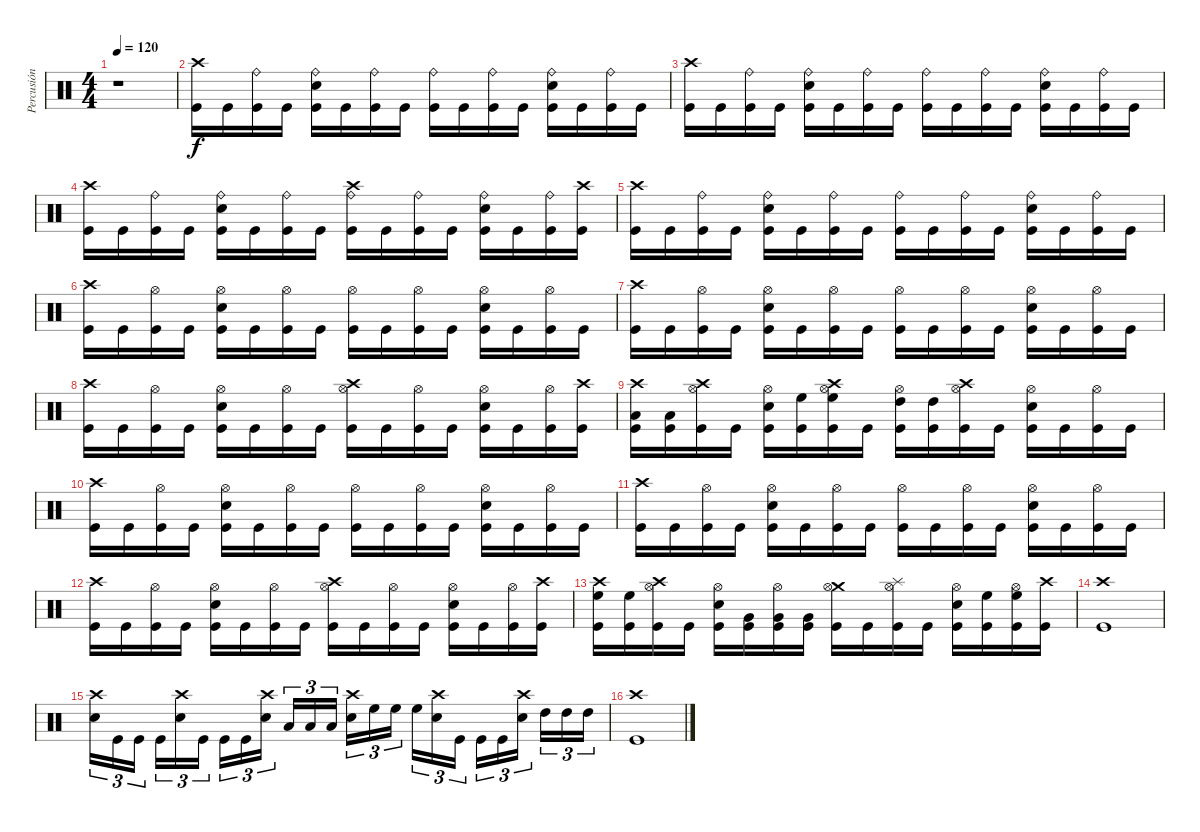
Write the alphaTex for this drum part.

\track ("Percusión" "Percusión") {instrument percussion}
\staff {score}
\articulation defaults
\ts (4 4)
\tempo 120
\clef neutral
\ks c
r.1{dy f} |
("Crash high (hit)" "Kick (hit)").16 "Kick (hit)".16 ("Ride (bell)" "Kick (hit)").16 "Kick (hit)".16 ("Snare (hit) 2" "Ride (bell)" "Kick (hit)").16 "Kick (hit)".16 ("Ride (bell)" "Kick (hit)").16 "Kick (hit)".16 ("Ride (bell)" "Kick (hit)").16 "Kick (hit)".16 ("Ride (bell)" "Kick (hit)").16 "Kick (hit)".16 ("Snare (hit) 2" "Ride (bell)" "Kick (hit)").16 "Kick (hit)".16 ("Ride (bell)" "Kick (hit)").16 "Kick (hit)".16 |
("Crash high (hit)" "Kick (hit)").16 "Kick (hit)".16 ("Ride (bell)" "Kick (hit)").16 "Kick (hit)".16 ("Snare (hit) 2" "Ride (bell)" "Kick (hit)").16 "Kick (hit)".16 ("Ride (bell)" "Kick (hit)").16 "Kick (hit)".16 ("Ride (bell)" "Kick (hit)").16 "Kick (hit)".16 ("Ride (bell)" "Kick (hit)").16 "Kick (hit)".16 ("Snare (hit) 2" "Ride (bell)" "Kick (hit)").16 "Kick (hit)".16 ("Ride (bell)" "Kick (hit)").16 "Kick (hit)".16 |
("Crash high (hit)" "Kick (hit)").16 "Kick (hit)".16 ("Ride (bell)" "Kick (hit)").16 "Kick (hit)".16 ("Snare (hit) 2" "Ride (bell)" "Kick (hit)").16 "Kick (hit)".16 ("Ride (bell)" "Kick (hit)").16 "Kick (hit)".16 ("Crash high (hit)" "Ride (bell)" "Kick (hit)").16 "Kick (hit)".16 ("Ride (bell)" "Kick (hit)").16 "Kick (hit)".16 ("Snare (hit) 2" "Ride (bell)" "Kick (hit)").16 "Kick (hit)".16 ("Ride (bell)" "Kick (hit)").16 ("Crash high (hit)" "Kick (hit)").16 |
("Crash high (hit)" "Kick (hit)").16 "Kick (hit)".16 ("Ride (bell)" "Kick (hit)").16 "Kick (hit)".16 ("Snare (hit) 2" "Ride (bell)" "Kick (hit)").16 "Kick (hit)".16 ("Ride (bell)" "Kick (hit)").16 "Kick (hit)".16 ("Ride (bell)" "Kick (hit)").16 "Kick (hit)".16 ("Ride (bell)" "Kick (hit)").16 "Kick (hit)".16 ("Snare (hit) 2" "Ride (bell)" "Kick (hit)").16 "Kick (hit)".16 ("Ride (bell)" "Kick (hit)").16 "Kick (hit)".16 |
("Crash high (hit)" "Kick (hit)").16 "Kick (hit)".16 ("Hi-Hat (open)" "Kick (hit)").16 "Kick (hit)".16 ("Snare (hit) 2" "Hi-Hat (open)" "Kick (hit)").16 "Kick (hit)".16 ("Hi-Hat (open)" "Kick (hit)").16 "Kick (hit)".16 ("Hi-Hat (open)" "Kick (hit)").16 "Kick (hit)".16 ("Hi-Hat (open)" "Kick (hit)").16 "Kick (hit)".16 ("Snare (hit) 2" "Hi-Hat (open)" "Kick (hit)").16 "Kick (hit)".16 ("Hi-Hat (open)" "Kick (hit)").16 "Kick (hit)".16 |
("Crash high (hit)" "Kick (hit)").16 "Kick (hit)".16 ("Hi-Hat (open)" "Kick (hit)").16 "Kick (hit)".16 ("Snare (hit) 2" "Hi-Hat (open)" "Kick (hit)").16 "Kick (hit)".16 ("Hi-Hat (open)" "Kick (hit)").16 "Kick (hit)".16 ("Hi-Hat (open)" "Kick (hit)").16 "Kick (hit)".16 ("Hi-Hat (open)" "Kick (hit)").16 "Kick (hit)".16 ("Snare (hit) 2" "Hi-Hat (open)" "Kick (hit)").16 "Kick (hit)".16 ("Hi-Hat (open)" "Kick (hit)").16 "Kick (hit)".16 |
("Crash high (hit)" "Kick (hit)").16 "Kick (hit)".16 ("Hi-Hat (open)" "Kick (hit)").16 "Kick (hit)".16 ("Snare (hit) 2" "Hi-Hat (open)" "Kick (hit)").16 "Kick (hit)".16 ("Hi-Hat (open)" "Kick (hit)").16 "Kick (hit)".16 ("Crash high (hit)" "Hi-Hat (open)" "Kick (hit)").16 "Kick (hit)".16 ("Hi-Hat (open)" "Kick (hit)").16 "Kick (hit)".16 ("Snare (hit) 2" "Hi-Hat (open)" "Kick (hit)").16 "Kick (hit)".16 ("Hi-Hat (open)" "Kick (hit)").16 ("Crash high (hit)" "Kick (hit)").16 |
("Low Floor Tom (hit)" "Crash high (hit)" "Kick (hit)").16 ("Low Floor Tom (hit)" "Kick (hit)").16 ("Crash high (hit)" "Hi-Hat (open)" "Kick (hit)").16 "Kick (hit)".16 ("Snare (hit) 2" "Hi-Hat (open)" "Kick (hit)").16 ("High Floor Tom (hit)" "Kick (hit)").16 ("High Floor Tom (hit)" "Crash high (hit)" "Hi-Hat (open)" "Kick (hit)").16 "Kick (hit)".16 ("High Tom (hit)" "Hi-Hat (open)" "Kick (hit)").16 ("High Tom (hit)" "Kick (hit)").16 ("Crash high (hit)" "Hi-Hat (open)" "Kick (hit)").16 "Kick (hit)".16 ("Snare (hit) 2" "Hi-Hat (open)" "Kick (hit)").16 "Kick (hit)".16 ("Hi-Hat (open)" "Kick (hit)").16 "Kick (hit)".16 |
("Crash high (hit)" "Kick (hit)").16 "Kick (hit)".16 ("Hi-Hat (open)" "Kick (hit)").16 "Kick (hit)".16 ("Snare (hit) 2" "Hi-Hat (open)" "Kick (hit)").16 "Kick (hit)".16 ("Hi-Hat (open)" "Kick (hit)").16 "Kick (hit)".16 ("Hi-Hat (open)" "Kick (hit)").16 "Kick (hit)".16 ("Hi-Hat (open)" "Kick (hit)").16 "Kick (hit)".16 ("Snare (hit) 2" "Hi-Hat (open)" "Kick (hit)").16 "Kick (hit)".16 ("Hi-Hat (open)" "Kick (hit)").16 "Kick (hit)".16 |
("Crash high (hit)" "Kick (hit)").16 "Kick (hit)".16 ("Hi-Hat (open)" "Kick (hit)").16 "Kick (hit)".16 ("Snare (hit) 2" "Hi-Hat (open)" "Kick (hit)").16 "Kick (hit)".16 ("Hi-Hat (open)" "Kick (hit)").16 "Kick (hit)".16 ("Hi-Hat (open)" "Kick (hit)").16 "Kick (hit)".16 ("Hi-Hat (open)" "Kick (hit)").16 "Kick (hit)".16 ("Snare (hit) 2" "Hi-Hat (open)" "Kick (hit)").16 "Kick (hit)".16 ("Hi-Hat (open)" "Kick (hit)").16 "Kick (hit)".16 |
("Crash high (hit)" "Kick (hit)").16 "Kick (hit)".16 ("Hi-Hat (open)" "Kick (hit)").16 "Kick (hit)".16 ("Snare (hit) 2" "Hi-Hat (open)" "Kick (hit)").16 "Kick (hit)".16 ("Hi-Hat (open)" "Kick (hit)").16 "Kick (hit)".16 ("Crash high (hit)" "Hi-Hat (open)" "Kick (hit)").16 "Kick (hit)".16 ("Hi-Hat (open)" "Kick (hit)").16 "Kick (hit)".16 ("Snare (hit) 2" "Hi-Hat (open)" "Kick (hit)").16 "Kick (hit)".16 ("Hi-Hat (open)" "Kick (hit)").16 ("Crash high (hit)" "Kick (hit)").16 |
("High Floor Tom (hit)" "Crash high (hit)" "Kick (hit)").16 ("High Floor Tom (hit)" "Kick (hit)").16 ("Crash high (hit)" "Hi-Hat (open)" "Kick (hit)").16 "Kick (hit)".16 ("Snare (hit) 2" "Hi-Hat (open)" "Kick (hit)").16 ("Very Low Tom (hit)" "Kick (hit)").16 ("Very Low Tom (hit)" "Hi-Hat (open)" "Kick (hit)").16 ("Very Low Tom (hit)" "Kick (hit)").16 ("Crash medium (hit)" "Hi-Hat (open)" "Kick (hit)").16 "Kick (hit)".16 ("Splash (hit)" "Hi-Hat (open)" "Kick (hit)").16 "Kick (hit)".16 ("Snare (hit) 2" "Hi-Hat (open)" "Kick (hit)").16 ("High Floor Tom (hit)" "Kick (hit)").16 ("High Floor Tom (hit)" "Hi-Hat (open)" "Kick (hit)").16 ("Crash high (hit)" "Kick (hit)").16 |
("Kick (hit)" "Crash high (hit)").1 |
("Crash high (hit)" "Snare (hit) 2").16{tu (3 2)} "Kick (hit)".16{tu (3 2)} "Kick (hit)".16{tu (3 2)} "Kick (hit)".16{tu (3 2)} ("Crash high (hit)" "Snare (hit) 2").16{tu (3 2)} "Kick (hit)".16{tu (3 2)} "Kick (hit)".16{tu (3 2)} "Kick (hit)".16{tu (3 2)} ("Crash high (hit)" "Snare (hit) 2").16{tu (3 2)} "Low Floor Tom (hit)".16{tu (3 2)} "Low Floor Tom (hit)".16{tu (3 2)} "Low Floor Tom (hit)".16{tu (3 2)} ("Crash high (hit)" "Snare (hit) 2").16{tu (3 2)} "High Floor Tom (hit)".16{tu (3 2)} "High Floor Tom (hit)".16{tu (3 2)} "High Floor Tom (hit)".16{tu (3 2)} ("Crash high (hit)" "Snare (hit) 2").16{tu (3 2)} "Kick (hit)".16{tu (3 2)} "Kick (hit)".16{tu (3 2)} "Kick (hit)".16{tu (3 2)} ("Snare (hit) 2" "Crash high (hit)").16{tu (3 2)} "High Tom (hit)".16{tu (3 2)} "High Tom (hit)".16{tu (3 2)} "High Tom (hit)".16{tu (3 2)} |
("Kick (hit)" "Crash high (hit)").1
